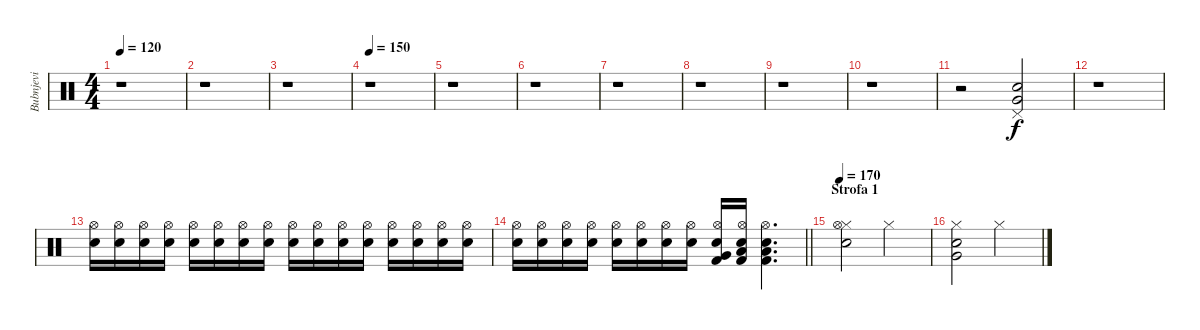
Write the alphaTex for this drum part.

\track ("Bubnjevi" "Bubnjevi") {instrument percussion}
\staff {score}
\articulation defaults
\ts (4 4)
\tempo 120
\clef neutral
\ks c
r.1{dy f} |
r.1 |
r.1 |
\tempo 150
r.1 |
r.1 |
r.1 |
r.1 |
r.1 |
r.1 |
r.1 |
r.2 ("Pedal Hi-Hat (hit)" "Very Low Tom (hit)" "Electric Snare (hit)").2 |
r.1 |
("Hi-Hat (open)" "Electric Snare (hit)").16 ("Hi-Hat (open)" "Electric Snare (hit)").16 ("Hi-Hat (open)" "Electric Snare (hit)").16 ("Hi-Hat (open)" "Electric Snare (hit)").16 ("Hi-Hat (open)" "Electric Snare (hit)").16 ("Hi-Hat (open)" "Electric Snare (hit)").16 ("Hi-Hat (open)" "Electric Snare (hit)").16 ("Hi-Hat (open)" "Electric Snare (hit)").16 ("Hi-Hat (open)" "Electric Snare (hit)").16 ("Hi-Hat (open)" "Electric Snare (hit)").16 ("Hi-Hat (open)" "Electric Snare (hit)").16 ("Hi-Hat (open)" "Electric Snare (hit)").16 ("Hi-Hat (open)" "Electric Snare (hit)").16 ("Hi-Hat (open)" "Electric Snare (hit)").16 ("Hi-Hat (open)" "Electric Snare (hit)").16 ("Hi-Hat (open)" "Electric Snare (hit)").16 |
\barLineRight lightlight
("Hi-Hat (open)" "Electric Snare (hit)").16 ("Hi-Hat (open)" "Electric Snare (hit)").16 ("Hi-Hat (open)" "Electric Snare (hit)").16 ("Hi-Hat (open)" "Electric Snare (hit)").16 ("Hi-Hat (open)" "Electric Snare (hit)").16 ("Hi-Hat (open)" "Electric Snare (hit)").16 ("Hi-Hat (open)" "Electric Snare (hit)").16 ("Hi-Hat (open)" "Electric Snare (hit)").16 ("Hi-Hat (open)" "Kick (hit) 2" "Very Low Tom (hit)" "Electric Snare (hit)").16 ("Hi-Hat (open)" "Kick (hit) 2" "Low Tom (hit)" "Electric Snare (hit)").16 ("Hi-Hat (open)" "Kick (hit) 2" "Low Floor Tom (hit)" "Electric Snare (hit)").4{d} |
\section ("" "Strofa 1")
\tempo 170
("Hi-Hat (closed)" "Hi-Hat (open)" "Electric Snare (hit)").2 "Hi-Hat (closed)".2 |
("Hi-Hat (closed)" "Very Low Tom (hit)" "Electric Snare (hit)").2 "Hi-Hat (closed)".2
